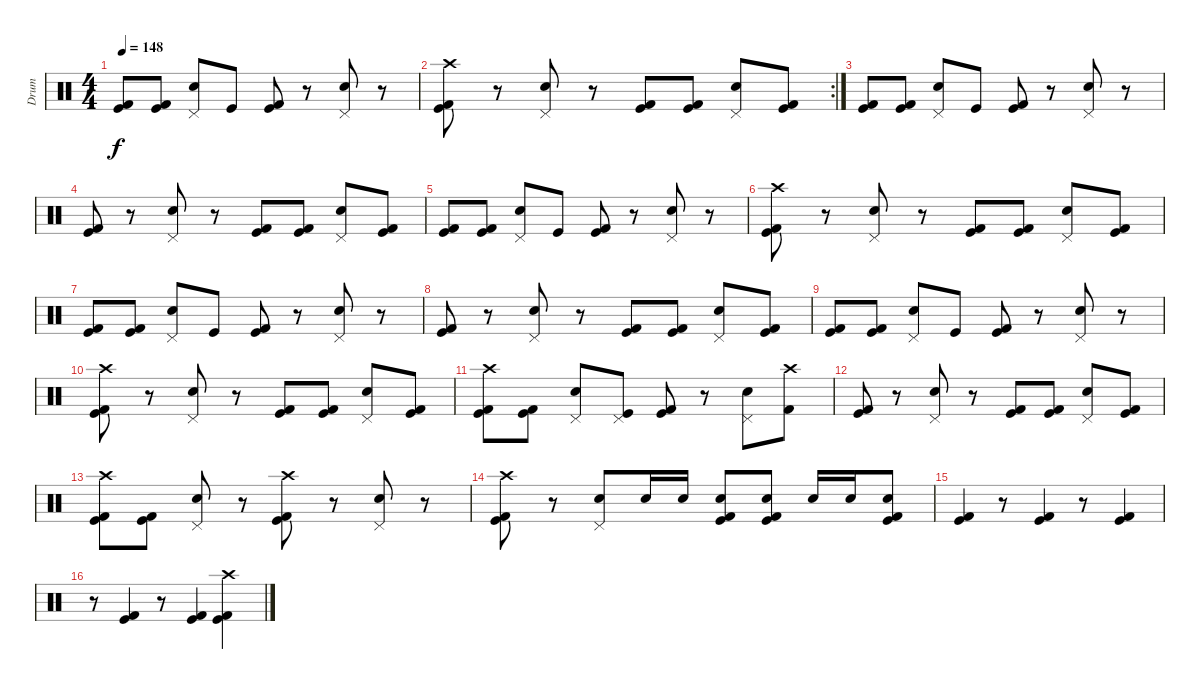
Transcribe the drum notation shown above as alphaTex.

\track ("Drum" "Drum") {instrument percussion}
\staff {score}
\articulation defaults
\ts (4 4)
\tempo 148
\clef neutral
\ks c
("Kick (hit)" "Kick (hit) 2").8{dy f} ("Kick (hit)" "Kick (hit) 2").8 ("Pedal Hi-Hat (hit)" "Snare (hit) 2").8 "Kick (hit)".8 ("Kick (hit)" "Kick (hit) 2").8 r.8 ("Pedal Hi-Hat (hit)" "Snare (hit) 2").8 r.8 |
\rc 2
("Crash high (hit)" "Kick (hit)" "Kick (hit) 2").8 r.8 ("Pedal Hi-Hat (hit)" "Snare (hit) 2").8 r.8 ("Kick (hit)" "Kick (hit) 2").8 ("Kick (hit)" "Kick (hit) 2").8 ("Pedal Hi-Hat (hit)" "Snare (hit) 2").8 ("Kick (hit)" "Kick (hit) 2").8 |
("Kick (hit)" "Kick (hit) 2").8 ("Kick (hit)" "Kick (hit) 2").8 ("Pedal Hi-Hat (hit)" "Snare (hit) 2").8 "Kick (hit)".8 ("Kick (hit)" "Kick (hit) 2").8 r.8 ("Pedal Hi-Hat (hit)" "Snare (hit) 2").8 r.8 |
("Kick (hit)" "Kick (hit) 2").8 r.8 ("Pedal Hi-Hat (hit)" "Snare (hit) 2").8 r.8 ("Kick (hit)" "Kick (hit) 2").8 ("Kick (hit)" "Kick (hit) 2").8 ("Pedal Hi-Hat (hit)" "Snare (hit) 2").8 ("Kick (hit)" "Kick (hit) 2").8 |
("Kick (hit)" "Kick (hit) 2").8 ("Kick (hit)" "Kick (hit) 2").8 ("Pedal Hi-Hat (hit)" "Snare (hit) 2").8 "Kick (hit)".8 ("Kick (hit)" "Kick (hit) 2").8 r.8 ("Pedal Hi-Hat (hit)" "Snare (hit) 2").8 r.8 |
("Crash high (hit)" "Kick (hit)" "Kick (hit) 2").8 r.8 ("Pedal Hi-Hat (hit)" "Snare (hit) 2").8 r.8 ("Kick (hit)" "Kick (hit) 2").8 ("Kick (hit)" "Kick (hit) 2").8 ("Pedal Hi-Hat (hit)" "Snare (hit) 2").8 ("Kick (hit)" "Kick (hit) 2").8 |
("Kick (hit)" "Kick (hit) 2").8 ("Kick (hit)" "Kick (hit) 2").8 ("Pedal Hi-Hat (hit)" "Snare (hit) 2").8 "Kick (hit)".8 ("Kick (hit)" "Kick (hit) 2").8 r.8 ("Pedal Hi-Hat (hit)" "Snare (hit) 2").8 r.8 |
("Kick (hit)" "Kick (hit) 2").8 r.8 ("Pedal Hi-Hat (hit)" "Snare (hit) 2").8 r.8 ("Kick (hit)" "Kick (hit) 2").8 ("Kick (hit)" "Kick (hit) 2").8 ("Pedal Hi-Hat (hit)" "Snare (hit) 2").8 ("Kick (hit)" "Kick (hit) 2").8 |
("Kick (hit)" "Kick (hit) 2").8 ("Kick (hit)" "Kick (hit) 2").8 ("Pedal Hi-Hat (hit)" "Snare (hit) 2").8 "Kick (hit)".8 ("Kick (hit)" "Kick (hit) 2").8 r.8 ("Pedal Hi-Hat (hit)" "Snare (hit) 2").8 r.8 |
("Crash high (hit)" "Kick (hit)" "Kick (hit) 2").8 r.8 ("Pedal Hi-Hat (hit)" "Snare (hit) 2").8 r.8 ("Kick (hit)" "Kick (hit) 2").8 ("Kick (hit)" "Kick (hit) 2").8 ("Pedal Hi-Hat (hit)" "Snare (hit) 2").8 ("Kick (hit)" "Kick (hit) 2").8 |
("Crash high (hit)" "Kick (hit)" "Kick (hit) 2").8 ("Kick (hit)" "Kick (hit) 2").8 ("Pedal Hi-Hat (hit)" "Snare (hit) 2").8 ("Pedal Hi-Hat (hit)" "Kick (hit)").8 ("Kick (hit)" "Kick (hit) 2").8 r.8 ("Pedal Hi-Hat (hit)" "Snare (hit) 2").8 ("Crash high (hit)" "Kick (hit) 2").8 |
("Kick (hit)" "Kick (hit) 2").8 r.8 ("Pedal Hi-Hat (hit)" "Snare (hit) 2").8 r.8 ("Kick (hit)" "Kick (hit) 2").8 ("Kick (hit)" "Kick (hit) 2").8 ("Pedal Hi-Hat (hit)" "Snare (hit) 2").8 ("Kick (hit)" "Kick (hit) 2").8 |
("Crash high (hit)" "Kick (hit)" "Kick (hit) 2").8 ("Kick (hit)" "Kick (hit) 2").8 ("Pedal Hi-Hat (hit)" "Snare (hit) 2").8 r.8 ("Crash high (hit)" "Kick (hit)" "Kick (hit) 2").8 r.8 ("Pedal Hi-Hat (hit)" "Snare (hit) 2").8 r.8 |
("Crash high (hit)" "Kick (hit)" "Kick (hit) 2").8 r.8 ("Electric Snare (hit)" "Pedal Hi-Hat (hit)").8 "Electric Snare (hit)".16 "Electric Snare (hit)".16 ("Electric Snare (hit)" "Kick (hit)" "Kick (hit) 2").8 ("Electric Snare (hit)" "Kick (hit)" "Kick (hit) 2").8 "Electric Snare (hit)".16 "Electric Snare (hit)".16 ("Electric Snare (hit)" "Kick (hit)" "Kick (hit) 2").8 |
("Kick (hit)" "Kick (hit) 2").4 r.8 ("Kick (hit)" "Kick (hit) 2").4 r.8 ("Kick (hit)" "Kick (hit) 2").4 |
r.8 ("Kick (hit)" "Kick (hit) 2").4 r.8 ("Kick (hit)" "Kick (hit) 2").4 ("Crash high (hit)" "Kick (hit)" "Kick (hit) 2").4
